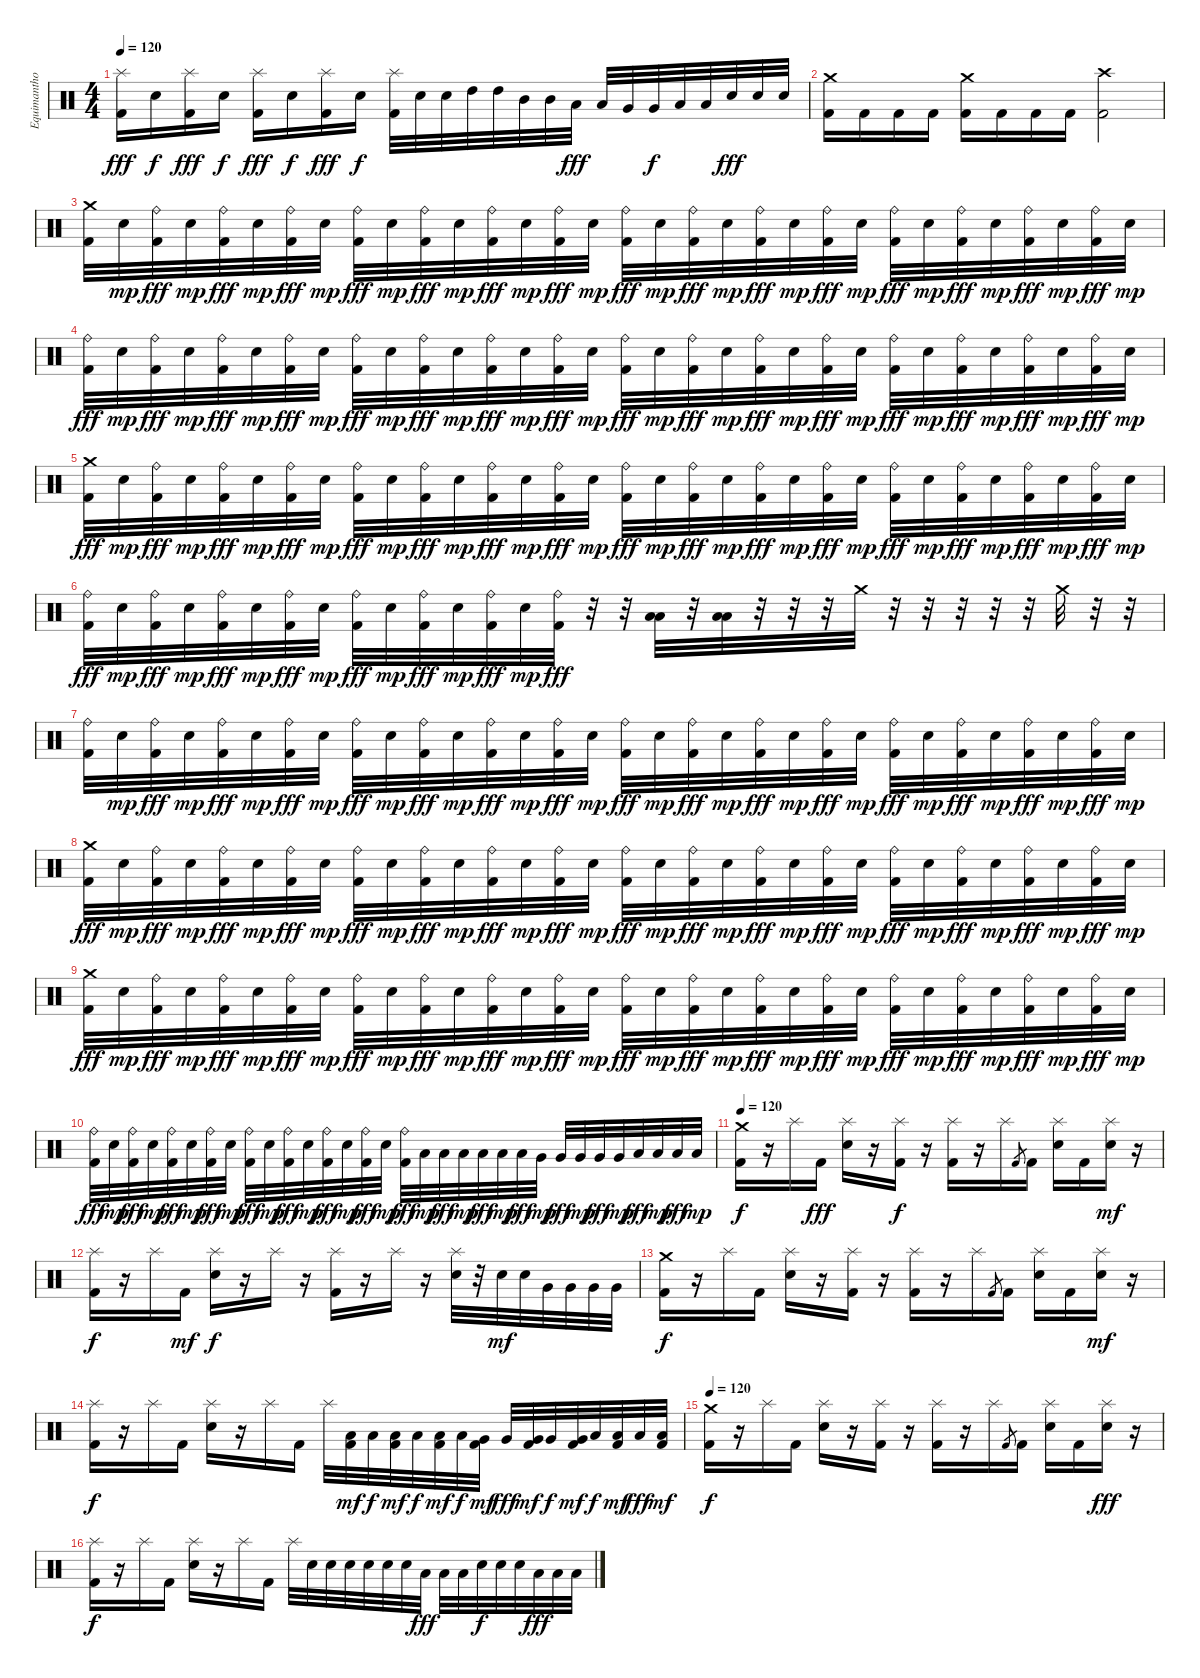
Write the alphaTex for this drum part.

\track ("Equimanthorn" "Equimantho") {instrument percussion}
\staff {score}
\articulation defaults
\ts (4 4)
\tempo 120
\clef neutral
\ks c
("Splash (hit)" "Kick (hit) 2").16{dy fff} "Snare (hit) 2".16{dy f} ("Splash (hit)" "Kick (hit) 2").16{dy fff} "Snare (hit) 2".16{dy f} ("Splash (hit)" "Kick (hit) 2").16{dy fff} "Snare (hit) 2".16{dy f} ("Splash (hit)" "Kick (hit) 2").16{dy fff} "Snare (hit) 2".16{dy f} ("Splash (hit)" "Kick (hit) 2").32 "Snare (hit) 2".32 "Snare (hit) 2".32 "High Tom (hit)".32 "High Tom (hit)".32 "Mid Tom (hit)".32 "Mid Tom (hit)".32 "Low Tom (hit)".32{dy fff} "Low Tom (hit)".32 "Very Low Tom (hit)".32 "Very Low Tom (hit)".32{dy f} "Low Tom (hit)".32 "Low Tom (hit)".32 "Snare (hit) 2".32{dy fff} "Snare (hit) 2".32 "Snare (hit) 2".32 |
("Crash medium (hit)" "Kick (hit) 2").16 "Kick (hit) 2".16 "Kick (hit) 2".16 "Kick (hit) 2".16 ("Crash medium (hit)" "Kick (hit) 2").16 "Kick (hit) 2".16 "Kick (hit) 2".16 "Kick (hit) 2".16 ("Crash high (hit)" "Kick (hit) 2").2 |
("Crash medium (hit)" "Kick (hit) 2").32 "Snare (hit) 2".32{dy mp} ("Ride (bell)" "Kick (hit) 2").32{dy fff} "Snare (hit) 2".32{dy mp} ("Ride (bell)" "Kick (hit) 2").32{dy fff} "Snare (hit) 2".32{dy mp} ("Ride (bell)" "Kick (hit) 2").32{dy fff} "Snare (hit) 2".32{dy mp} ("Ride (bell)" "Kick (hit) 2").32{dy fff} "Snare (hit) 2".32{dy mp} ("Ride (bell)" "Kick (hit) 2").32{dy fff} "Snare (hit) 2".32{dy mp} ("Ride (bell)" "Kick (hit) 2").32{dy fff} "Snare (hit) 2".32{dy mp} ("Ride (bell)" "Kick (hit) 2").32{dy fff} "Snare (hit) 2".32{dy mp} ("Ride (bell)" "Kick (hit) 2").32{dy fff} "Snare (hit) 2".32{dy mp} ("Ride (bell)" "Kick (hit) 2").32{dy fff} "Snare (hit) 2".32{dy mp} ("Ride (bell)" "Kick (hit) 2").32{dy fff} "Snare (hit) 2".32{dy mp} ("Ride (bell)" "Kick (hit) 2").32{dy fff} "Snare (hit) 2".32{dy mp} ("Ride (bell)" "Kick (hit) 2").32{dy fff} "Snare (hit) 2".32{dy mp} ("Ride (bell)" "Kick (hit) 2").32{dy fff} "Snare (hit) 2".32{dy mp} ("Ride (bell)" "Kick (hit) 2").32{dy fff} "Snare (hit) 2".32{dy mp} ("Ride (bell)" "Kick (hit) 2").32{dy fff} "Snare (hit) 2".32{dy mp} |
("Ride (bell)" "Kick (hit) 2").32{dy fff} "Snare (hit) 2".32{dy mp} ("Ride (bell)" "Kick (hit) 2").32{dy fff} "Snare (hit) 2".32{dy mp} ("Ride (bell)" "Kick (hit) 2").32{dy fff} "Snare (hit) 2".32{dy mp} ("Ride (bell)" "Kick (hit) 2").32{dy fff} "Snare (hit) 2".32{dy mp} ("Ride (bell)" "Kick (hit) 2").32{dy fff} "Snare (hit) 2".32{dy mp} ("Ride (bell)" "Kick (hit) 2").32{dy fff} "Snare (hit) 2".32{dy mp} ("Ride (bell)" "Kick (hit) 2").32{dy fff} "Snare (hit) 2".32{dy mp} ("Ride (bell)" "Kick (hit) 2").32{dy fff} "Snare (hit) 2".32{dy mp} ("Ride (bell)" "Kick (hit) 2").32{dy fff} "Snare (hit) 2".32{dy mp} ("Ride (bell)" "Kick (hit) 2").32{dy fff} "Snare (hit) 2".32{dy mp} ("Ride (bell)" "Kick (hit) 2").32{dy fff} "Snare (hit) 2".32{dy mp} ("Ride (bell)" "Kick (hit) 2").32{dy fff} "Snare (hit) 2".32{dy mp} ("Ride (bell)" "Kick (hit) 2").32{dy fff} "Snare (hit) 2".32{dy mp} ("Ride (bell)" "Kick (hit) 2").32{dy fff} "Snare (hit) 2".32{dy mp} ("Ride (bell)" "Kick (hit) 2").32{dy fff} "Snare (hit) 2".32{dy mp} ("Ride (bell)" "Kick (hit) 2").32{dy fff} "Snare (hit) 2".32{dy mp} |
("Crash medium (hit)" "Kick (hit) 2").32{dy fff} "Snare (hit) 2".32{dy mp} ("Ride (bell)" "Kick (hit) 2").32{dy fff} "Snare (hit) 2".32{dy mp} ("Ride (bell)" "Kick (hit) 2").32{dy fff} "Snare (hit) 2".32{dy mp} ("Ride (bell)" "Kick (hit) 2").32{dy fff} "Snare (hit) 2".32{dy mp} ("Ride (bell)" "Kick (hit) 2").32{dy fff} "Snare (hit) 2".32{dy mp} ("Ride (bell)" "Kick (hit) 2").32{dy fff} "Snare (hit) 2".32{dy mp} ("Ride (bell)" "Kick (hit) 2").32{dy fff} "Snare (hit) 2".32{dy mp} ("Ride (bell)" "Kick (hit) 2").32{dy fff} "Snare (hit) 2".32{dy mp} ("Ride (bell)" "Kick (hit) 2").32{dy fff} "Snare (hit) 2".32{dy mp} ("Ride (bell)" "Kick (hit) 2").32{dy fff} "Snare (hit) 2".32{dy mp} ("Ride (bell)" "Kick (hit) 2").32{dy fff} "Snare (hit) 2".32{dy mp} ("Ride (bell)" "Kick (hit) 2").32{dy fff} "Snare (hit) 2".32{dy mp} ("Ride (bell)" "Kick (hit) 2").32{dy fff} "Snare (hit) 2".32{dy mp} ("Ride (bell)" "Kick (hit) 2").32{dy fff} "Snare (hit) 2".32{dy mp} ("Ride (bell)" "Kick (hit) 2").32{dy fff} "Snare (hit) 2".32{dy mp} ("Ride (bell)" "Kick (hit) 2").32{dy fff} "Snare (hit) 2".32{dy mp} |
("Ride (bell)" "Kick (hit) 2").32{dy fff} "Snare (hit) 2".32{dy mp} ("Ride (bell)" "Kick (hit) 2").32{dy fff} "Snare (hit) 2".32{dy mp} ("Ride (bell)" "Kick (hit) 2").32{dy fff} "Snare (hit) 2".32{dy mp} ("Ride (bell)" "Kick (hit) 2").32{dy fff} "Snare (hit) 2".32{dy mp} ("Ride (bell)" "Kick (hit) 2").32{dy fff} "Snare (hit) 2".32{dy mp} ("Ride (bell)" "Kick (hit) 2").32{dy fff} "Snare (hit) 2".32{dy mp} ("Ride (bell)" "Kick (hit) 2").32{dy fff} "Snare (hit) 2".32{dy mp} ("Ride (bell)" "Kick (hit) 2").32{dy fff} r.32 r.32 ("Low Tom (hit)" "Low Tom (hit)").32 r.32 ("Low Tom (hit)" "Low Tom (hit)").32 r.32 r.32 r.32 "Crash medium (hit)".32 r.32 r.32 r.32 r.32 r.32 "Crash medium (hit)".32 r.32 r.32 |
("Ride (bell)" "Kick (hit) 2").32 "Snare (hit) 2".32{dy mp} ("Ride (bell)" "Kick (hit) 2").32{dy fff} "Snare (hit) 2".32{dy mp} ("Ride (bell)" "Kick (hit) 2").32{dy fff} "Snare (hit) 2".32{dy mp} ("Ride (bell)" "Kick (hit) 2").32{dy fff} "Snare (hit) 2".32{dy mp} ("Ride (bell)" "Kick (hit) 2").32{dy fff} "Snare (hit) 2".32{dy mp} ("Ride (bell)" "Kick (hit) 2").32{dy fff} "Snare (hit) 2".32{dy mp} ("Ride (bell)" "Kick (hit) 2").32{dy fff} "Snare (hit) 2".32{dy mp} ("Ride (bell)" "Kick (hit) 2").32{dy fff} "Snare (hit) 2".32{dy mp} ("Ride (bell)" "Kick (hit) 2").32{dy fff} "Snare (hit) 2".32{dy mp} ("Ride (bell)" "Kick (hit) 2").32{dy fff} "Snare (hit) 2".32{dy mp} ("Ride (bell)" "Kick (hit) 2").32{dy fff} "Snare (hit) 2".32{dy mp} ("Ride (bell)" "Kick (hit) 2").32{dy fff} "Snare (hit) 2".32{dy mp} ("Ride (bell)" "Kick (hit) 2").32{dy fff} "Snare (hit) 2".32{dy mp} ("Ride (bell)" "Kick (hit) 2").32{dy fff} "Snare (hit) 2".32{dy mp} ("Ride (bell)" "Kick (hit) 2").32{dy fff} "Snare (hit) 2".32{dy mp} ("Ride (bell)" "Kick (hit) 2").32{dy fff} "Snare (hit) 2".32{dy mp} |
("Crash medium (hit)" "Kick (hit) 2").32{dy fff} "Snare (hit) 2".32{dy mp} ("Ride (bell)" "Kick (hit) 2").32{dy fff} "Snare (hit) 2".32{dy mp} ("Ride (bell)" "Kick (hit) 2").32{dy fff} "Snare (hit) 2".32{dy mp} ("Ride (bell)" "Kick (hit) 2").32{dy fff} "Snare (hit) 2".32{dy mp} ("Ride (bell)" "Kick (hit) 2").32{dy fff} "Snare (hit) 2".32{dy mp} ("Ride (bell)" "Kick (hit) 2").32{dy fff} "Snare (hit) 2".32{dy mp} ("Ride (bell)" "Kick (hit) 2").32{dy fff} "Snare (hit) 2".32{dy mp} ("Ride (bell)" "Kick (hit) 2").32{dy fff} "Snare (hit) 2".32{dy mp} ("Ride (bell)" "Kick (hit) 2").32{dy fff} "Snare (hit) 2".32{dy mp} ("Ride (bell)" "Kick (hit) 2").32{dy fff} "Snare (hit) 2".32{dy mp} ("Ride (bell)" "Kick (hit) 2").32{dy fff} "Snare (hit) 2".32{dy mp} ("Ride (bell)" "Kick (hit) 2").32{dy fff} "Snare (hit) 2".32{dy mp} ("Ride (bell)" "Kick (hit) 2").32{dy fff} "Snare (hit) 2".32{dy mp} ("Ride (bell)" "Kick (hit) 2").32{dy fff} "Snare (hit) 2".32{dy mp} ("Ride (bell)" "Kick (hit) 2").32{dy fff} "Snare (hit) 2".32{dy mp} ("Ride (bell)" "Kick (hit) 2").32{dy fff} "Snare (hit) 2".32{dy mp} |
("Crash medium (hit)" "Kick (hit) 2").32{dy fff} "Snare (hit) 2".32{dy mp} ("Ride (bell)" "Kick (hit) 2").32{dy fff} "Snare (hit) 2".32{dy mp} ("Ride (bell)" "Kick (hit) 2").32{dy fff} "Snare (hit) 2".32{dy mp} ("Ride (bell)" "Kick (hit) 2").32{dy fff} "Snare (hit) 2".32{dy mp} ("Ride (bell)" "Kick (hit) 2").32{dy fff} "Snare (hit) 2".32{dy mp} ("Ride (bell)" "Kick (hit) 2").32{dy fff} "Snare (hit) 2".32{dy mp} ("Ride (bell)" "Kick (hit) 2").32{dy fff} "Snare (hit) 2".32{dy mp} ("Ride (bell)" "Kick (hit) 2").32{dy fff} "Snare (hit) 2".32{dy mp} ("Ride (bell)" "Kick (hit) 2").32{dy fff} "Snare (hit) 2".32{dy mp} ("Ride (bell)" "Kick (hit) 2").32{dy fff} "Snare (hit) 2".32{dy mp} ("Ride (bell)" "Kick (hit) 2").32{dy fff} "Snare (hit) 2".32{dy mp} ("Ride (bell)" "Kick (hit) 2").32{dy fff} "Snare (hit) 2".32{dy mp} ("Ride (bell)" "Kick (hit) 2").32{dy fff} "Snare (hit) 2".32{dy mp} ("Ride (bell)" "Kick (hit) 2").32{dy fff} "Snare (hit) 2".32{dy mp} ("Ride (bell)" "Kick (hit) 2").32{dy fff} "Snare (hit) 2".32{dy mp} ("Ride (bell)" "Kick (hit) 2").32{dy fff} "Snare (hit) 2".32{dy mp} |
("Ride (bell)" "Kick (hit) 2").32{dy fff} "Snare (hit) 2".32{dy mp} ("Ride (bell)" "Kick (hit) 2").32{dy fff} "Snare (hit) 2".32{dy mp} ("Ride (bell)" "Kick (hit) 2").32{dy fff} "Snare (hit) 2".32{dy mp} ("Ride (bell)" "Kick (hit) 2").32{dy fff} "Snare (hit) 2".32{dy mp} ("Ride (bell)" "Kick (hit) 2").32{dy fff} "Snare (hit) 2".32{dy mp} ("Ride (bell)" "Kick (hit) 2").32{dy fff} "Snare (hit) 2".32{dy mp} ("Ride (bell)" "Kick (hit) 2").32{dy fff} "Snare (hit) 2".32{dy mp} ("Ride (bell)" "Kick (hit) 2").32{dy fff} "Snare (hit) 2".32{dy mp} ("Ride (bell)" "Kick (hit) 2").32{dy fff} "Low Tom (hit)".32{dy mp} "Low Tom (hit)".32{dy fff} "Low Tom (hit)".32{dy mp} "Low Tom (hit)".32{dy fff} "Low Tom (hit)".32{dy mp} "Low Tom (hit)".32{dy fff} "Very Low Tom (hit)".32{dy mp} "Very Low Tom (hit)".32{dy fff} "Very Low Tom (hit)".32{dy mp} "Very Low Tom (hit)".32{dy fff} "Very Low Tom (hit)".32{dy mp} "Low Floor Tom (hit)".32{dy fff} "Low Floor Tom (hit)".32{dy mp} "Low Floor Tom (hit)".32{dy fff} "Low Floor Tom (hit)".32{dy mp} |
\tempo 120
("Crash medium (hit)" "Kick (hit) 2").16{dy f} r.16 "Splash (hit)".16 "Kick (hit) 2".16{dy fff} ("Splash (hit)" "Snare (hit) 2").16 r.16 ("Splash (hit)" "Kick (hit) 2").16{dy f} r.16 ("Splash (hit)" "Kick (hit) 2").16 r.16 "Splash (hit)".16 "Kick (hit) 2".8{gr} "Kick (hit) 2".16 ("Splash (hit)" "Snare (hit) 2").16 "Kick (hit) 2".16 ("Splash (hit)" "Snare (hit) 2").16{dy mf} r.16 |
("Splash (hit)" "Kick (hit) 2").16{dy f} r.16 "Splash (hit)".16 "Kick (hit) 2".16{dy mf} ("Splash (hit)" "Snare (hit) 2").16{dy f} r.16 "Splash (hit)".16 r.16 ("Splash (hit)" "Kick (hit) 2").16 r.16 "Splash (hit)".16 r.16 ("Splash (hit)" "Snare (hit) 2").32 r.32 "Snare (hit) 2".32{dy mf} "Snare (hit) 2".32 "Very Low Tom (hit)".32 "Very Low Tom (hit)".32 "Very Low Tom (hit)".32 "Very Low Tom (hit)".32 |
("Crash medium (hit)" "Kick (hit) 2").16{dy f} r.16 "Splash (hit)".16 "Kick (hit) 2".16 ("Splash (hit)" "Snare (hit) 2").16 r.16 ("Splash (hit)" "Kick (hit) 2").16 r.16 ("Splash (hit)" "Kick (hit) 2").16 r.16 "Splash (hit)".16 "Kick (hit) 2".8{gr} "Kick (hit) 2".16 ("Splash (hit)" "Snare (hit) 2").16 "Kick (hit) 2".16 ("Splash (hit)" "Snare (hit) 2").16{dy mf} r.16 |
("Splash (hit)" "Kick (hit) 2").16{dy f} r.16 "Splash (hit)".16 "Kick (hit) 2".16 ("Splash (hit)" "Snare (hit) 2").16 r.16 "Splash (hit)".16 "Kick (hit) 2".16 "Splash (hit)".32 ("Low Tom (hit)" "Kick (hit) 2").32{dy mf} "Low Tom (hit)".32{dy f} ("Low Tom (hit)" "Kick (hit) 2").32{dy mf} "Low Tom (hit)".32{dy f} ("Low Tom (hit)" "Kick (hit) 2").32{dy mf} "Low Tom (hit)".32{dy f} ("Very Low Tom (hit)" "Kick (hit) 2").32{dy mf} "Very Low Tom (hit)".32{dy fff} ("Very Low Tom (hit)" "Kick (hit) 2").32{dy mf} "Very Low Tom (hit)".32{dy f} ("Very Low Tom (hit)" "Kick (hit) 2").32{dy mf} "Low Floor Tom (hit)".32{dy f} ("Low Floor Tom (hit)" "Kick (hit) 2").32{dy mf} "Low Floor Tom (hit)".32{dy fff} ("Low Floor Tom (hit)" "Kick (hit) 2").32{dy mf} |
\tempo 120
("Crash medium (hit)" "Kick (hit) 2").16{dy f} r.16 "Splash (hit)".16 "Kick (hit) 2".16 ("Splash (hit)" "Snare (hit) 2").16 r.16 ("Splash (hit)" "Kick (hit) 2").16 r.16 ("Splash (hit)" "Kick (hit) 2").16 r.16 "Splash (hit)".16 "Kick (hit) 2".8{gr} "Kick (hit) 2".16 ("Splash (hit)" "Snare (hit) 2").16 "Kick (hit) 2".16 ("Splash (hit)" "Snare (hit) 2").16{dy fff} r.16 |
("Splash (hit)" "Kick (hit) 2").16{dy f} r.16 "Splash (hit)".16 "Kick (hit) 2".16 ("Splash (hit)" "Snare (hit) 2").16 r.16 "Splash (hit)".16 "Kick (hit) 2".16 "Splash (hit)".32 "Snare (hit) 2".32 "Snare (hit) 2".32 "Snare (hit) 2".32 "Snare (hit) 2".32 "Snare (hit) 2".32 "Snare (hit) 2".32 "Low Tom (hit)".32{dy fff} "Low Tom (hit)".32 "Low Tom (hit)".32 "Snare (hit) 2".32{dy f} "Snare (hit) 2".32 "Snare (hit) 2".32 "Low Tom (hit)".32{dy fff} "Low Tom (hit)".32 "Low Tom (hit)".32
